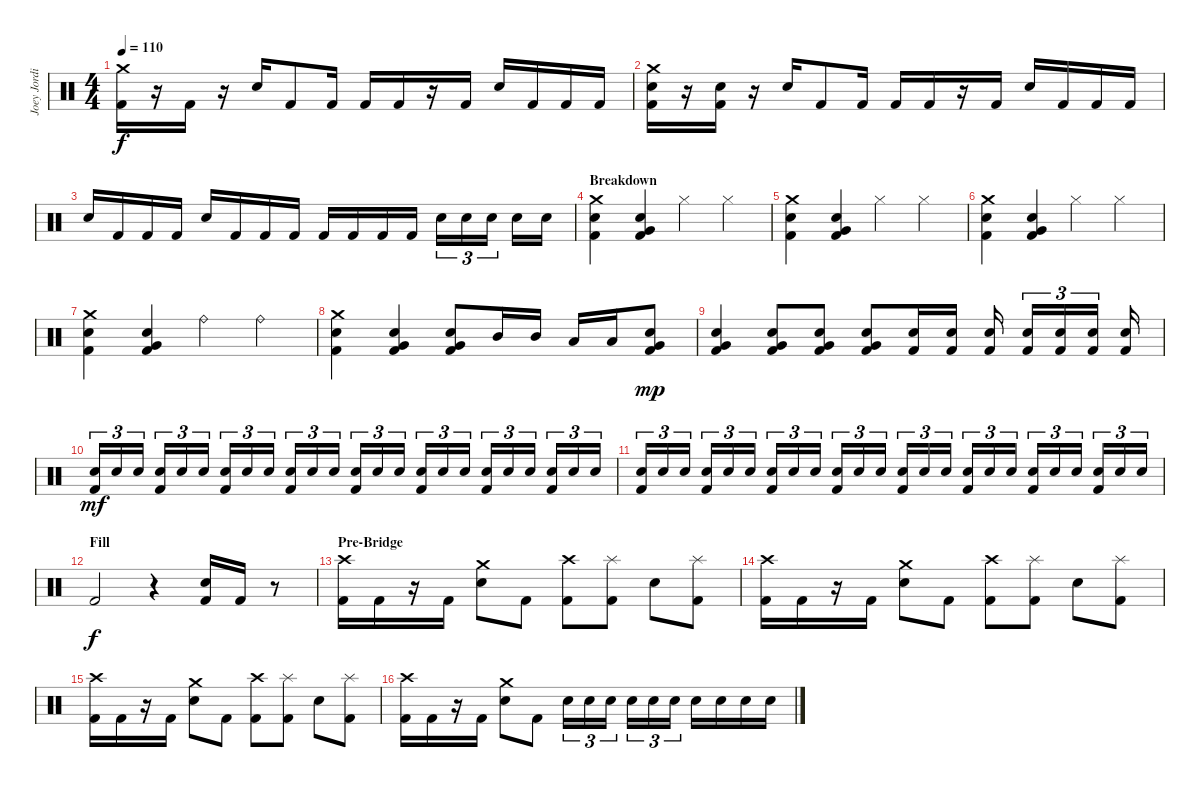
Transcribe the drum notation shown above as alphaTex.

\track ("Joey Jordison" "Joey Jordi") {instrument percussion}
\staff {score}
\articulation defaults
\ts (4 4)
\tempo 110
\clef neutral
\ks c
("Crash medium (hit)" "Kick (hit) 2").16{dy f} r.16 "Kick (hit) 2".16 r.16 "Snare (hit) 2".16 "Kick (hit) 2".8 "Kick (hit) 2".16 "Kick (hit) 2".16 "Kick (hit) 2".16 r.16 "Kick (hit) 2".16 "Snare (hit) 2".16 "Kick (hit) 2".16 "Kick (hit) 2".16 "Kick (hit) 2".16 |
("Crash medium (hit)" "Snare (hit) 2" "Kick (hit) 2").16 r.16 ("Snare (hit) 2" "Kick (hit) 2").16 r.16 "Snare (hit) 2".16 "Kick (hit) 2".8 "Kick (hit) 2".16 "Kick (hit) 2".16 "Kick (hit) 2".16 r.16 "Kick (hit) 2".16 "Snare (hit) 2".16 "Kick (hit) 2".16 "Kick (hit) 2".16 "Kick (hit) 2".16 |
"Snare (hit) 2".16 "Kick (hit) 2".16 "Kick (hit) 2".16 "Kick (hit) 2".16 "Snare (hit) 2".16 "Kick (hit) 2".16 "Kick (hit) 2".16 "Kick (hit) 2".16 "Kick (hit) 2".16 "Kick (hit) 2".16 "Kick (hit) 2".16 "Kick (hit) 2".16 "Snare (hit) 2".16{tu (3 2)} "Snare (hit) 2".16{tu (3 2)} "Snare (hit) 2".16{tu (3 2)} "Snare (hit) 2".16 "Snare (hit) 2".16 |
\section ("" "Breakdown")
("Crash medium (hit)" "Snare (hit) 2" "Kick (hit) 2").4 ("Very Low Tom (hit)" "Snare (hit) 2" "Kick (hit) 2").4 "Hi-Hat (closed)".4 "Hi-Hat (closed)".4 |
("Crash medium (hit)" "Snare (hit) 2" "Kick (hit) 2").4 ("Very Low Tom (hit)" "Snare (hit) 2" "Kick (hit) 2").4 "Hi-Hat (closed)".4 "Hi-Hat (closed)".4 |
("Crash medium (hit)" "Snare (hit) 2" "Kick (hit) 2").4 ("Very Low Tom (hit)" "Snare (hit) 2" "Kick (hit) 2").4 "Hi-Hat (closed)".4 "Hi-Hat (closed)".4 |
("Crash medium (hit)" "Snare (hit) 2" "Kick (hit) 2").4 ("Very Low Tom (hit)" "Snare (hit) 2" "Kick (hit) 2").4 "Ride (bell)".4 "Ride (bell)".4 |
("Crash medium (hit)" "Snare (hit) 2" "Kick (hit) 2").4 ("Very Low Tom (hit)" "Snare (hit) 2" "Kick (hit) 2").4 ("Very Low Tom (hit)" "Snare (hit) 2" "Kick (hit) 2").8 "Mid Tom (hit)".16 "Mid Tom (hit)".16 "Low Tom (hit)".16 "Low Tom (hit)".16 ("Very Low Tom (hit)" "Snare (hit) 2" "Kick (hit) 2").8{dy mp} |
("Very Low Tom (hit)" "Snare (hit) 2" "Kick (hit) 2").4 ("Very Low Tom (hit)" "Snare (hit) 2" "Kick (hit) 2").8 ("Very Low Tom (hit)" "Snare (hit) 2" "Kick (hit) 2").8 ("Very Low Tom (hit)" "Snare (hit) 2" "Kick (hit) 2").8 ("Snare (hit) 2" "Kick (hit) 2").16 ("Snare (hit) 2" "Kick (hit) 2").16 ("Snare (hit) 2" "Kick (hit) 2").16 ("Snare (hit) 2" "Kick (hit) 2").16{tu (3 2)} ("Snare (hit) 2" "Kick (hit) 2").16{tu (3 2)} ("Snare (hit) 2" "Kick (hit) 2").16{tu (3 2)} ("Snare (hit) 2" "Kick (hit) 2").16 |
("Snare (hit) 2" "Kick (hit) 2").16{tu (3 2) dy mf} "Snare (hit) 2".16{tu (3 2)} "Snare (hit) 2".16{tu (3 2)} ("Snare (hit) 2" "Kick (hit) 2").16{tu (3 2)} "Snare (hit) 2".16{tu (3 2)} "Snare (hit) 2".16{tu (3 2)} ("Snare (hit) 2" "Kick (hit) 2").16{tu (3 2)} "Snare (hit) 2".16{tu (3 2)} "Snare (hit) 2".16{tu (3 2)} ("Snare (hit) 2" "Kick (hit) 2").16{tu (3 2)} "Snare (hit) 2".16{tu (3 2)} "Snare (hit) 2".16{tu (3 2)} ("Snare (hit) 2" "Kick (hit) 2").16{tu (3 2)} "Snare (hit) 2".16{tu (3 2)} "Snare (hit) 2".16{tu (3 2)} ("Snare (hit) 2" "Kick (hit) 2").16{tu (3 2)} "Snare (hit) 2".16{tu (3 2)} "Snare (hit) 2".16{tu (3 2)} ("Snare (hit) 2" "Kick (hit) 2").16{tu (3 2)} "Snare (hit) 2".16{tu (3 2)} "Snare (hit) 2".16{tu (3 2)} ("Snare (hit) 2" "Kick (hit) 2").16{tu (3 2)} "Snare (hit) 2".16{tu (3 2)} "Snare (hit) 2".16{tu (3 2)} |
("Snare (hit) 2" "Kick (hit) 2").16{tu (3 2)} "Snare (hit) 2".16{tu (3 2)} "Snare (hit) 2".16{tu (3 2)} ("Snare (hit) 2" "Kick (hit) 2").16{tu (3 2)} "Snare (hit) 2".16{tu (3 2)} "Snare (hit) 2".16{tu (3 2)} ("Snare (hit) 2" "Kick (hit) 2").16{tu (3 2)} "Snare (hit) 2".16{tu (3 2)} "Snare (hit) 2".16{tu (3 2)} ("Snare (hit) 2" "Kick (hit) 2").16{tu (3 2)} "Snare (hit) 2".16{tu (3 2)} "Snare (hit) 2".16{tu (3 2)} ("Snare (hit) 2" "Kick (hit) 2").16{tu (3 2)} "Snare (hit) 2".16{tu (3 2)} "Snare (hit) 2".16{tu (3 2)} ("Snare (hit) 2" "Kick (hit) 2").16{tu (3 2)} "Snare (hit) 2".16{tu (3 2)} "Snare (hit) 2".16{tu (3 2)} ("Snare (hit) 2" "Kick (hit) 2").16{tu (3 2)} "Snare (hit) 2".16{tu (3 2)} "Snare (hit) 2".16{tu (3 2)} ("Snare (hit) 2" "Kick (hit) 2").16{tu (3 2)} "Snare (hit) 2".16{tu (3 2)} "Snare (hit) 2".16{tu (3 2)} |
\section ("" "Fill")
"Kick (hit) 2".2{dy f} r.4 ("Snare (hit) 2" "Kick (hit) 2").16 "Kick (hit) 2".16 r.8 |
\section ("" "Pre-Bridge")
("Crash high (hit)" "Kick (hit) 2").16 "Kick (hit) 2".16 r.16 "Kick (hit) 2".16 ("Crash medium (hit)" "Snare (hit) 2").8 "Kick (hit) 2".8 ("Crash high (hit)" "Kick (hit) 2").8 ("Splash (hit)" "Kick (hit) 2").8 "Snare (hit) 2".8 ("Splash (hit)" "Kick (hit) 2").8 |
("Crash high (hit)" "Kick (hit) 2").16 "Kick (hit) 2".16 r.16 "Kick (hit) 2".16 ("Crash medium (hit)" "Snare (hit) 2").8 "Kick (hit) 2".8 ("Crash high (hit)" "Kick (hit) 2").8 ("Splash (hit)" "Kick (hit) 2").8 "Snare (hit) 2".8 ("Splash (hit)" "Kick (hit) 2").8 |
("Crash high (hit)" "Kick (hit) 2").16 "Kick (hit) 2".16 r.16 "Kick (hit) 2".16 ("Crash medium (hit)" "Snare (hit) 2").8 "Kick (hit) 2".8 ("Crash high (hit)" "Kick (hit) 2").8 ("Splash (hit)" "Kick (hit) 2").8 "Snare (hit) 2".8 ("Splash (hit)" "Kick (hit) 2").8 |
("Crash high (hit)" "Kick (hit) 2").16 "Kick (hit) 2".16 r.16 "Kick (hit) 2".16 ("Crash medium (hit)" "Snare (hit) 2").8 "Kick (hit) 2".8 "Snare (hit) 2".16{tu (3 2)} "Snare (hit) 2".16{tu (3 2)} "Snare (hit) 2".16{tu (3 2)} "Snare (hit) 2".16{tu (3 2)} "Snare (hit) 2".16{tu (3 2)} "Snare (hit) 2".16{tu (3 2)} "Snare (hit) 2".16 "Snare (hit) 2".16 "Snare (hit) 2".16 "Snare (hit) 2".16
